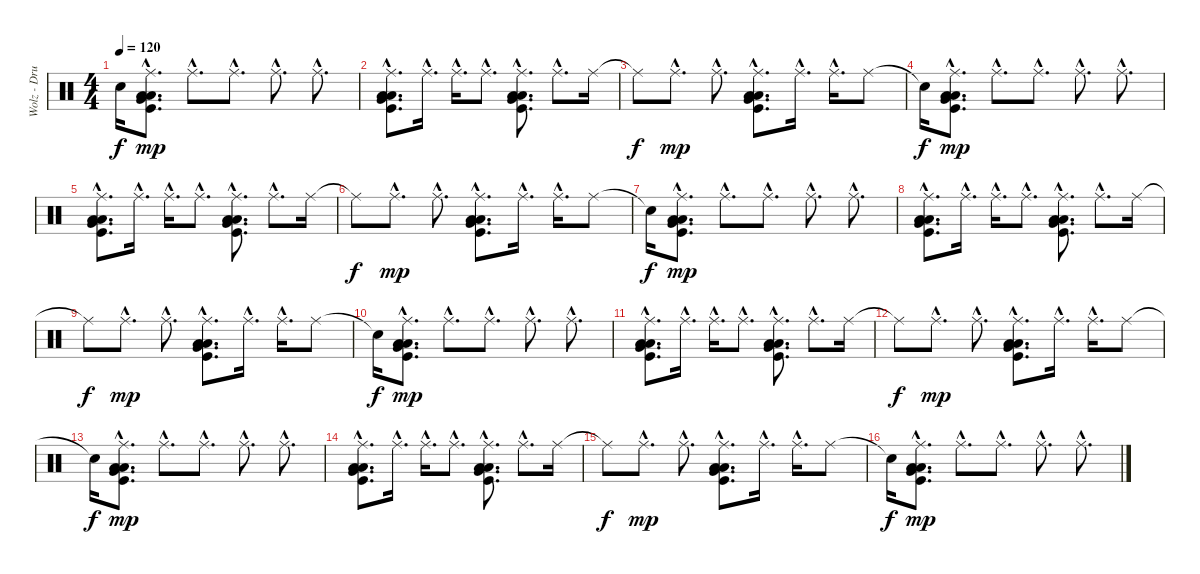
\track ("Wolz - Drums" "Wolz - Dru") {instrument percussion}
\staff {score}
\articulation defaults
\ts (4 4)
\tempo 120
\clef neutral
\ks c "Snare (hit)"{t}.16{dy f}
("Ride (middle)"{hac} "Low Tom (hit)"{hac} "Very Low Tom (hit)"{hac} "Low Floor Tom (hit)"{hac} "Kick (hit)"{hac}).8{d bu 60 dy mp} "Ride (middle)"{hac}.8{d} "Ride (middle)"{hac}.8{d} "Ride (middle)"{hac}.8{d} "Ride (middle)"{hac}.8{d} |
("Ride (middle)"{hac} "Low Tom (hit)"{hac} "Very Low Tom (hit)"{hac} "Low Floor Tom (hit)"{hac} "Kick (hit)"{hac}).8{d bu 60} "Ride (middle)"{hac}.16{d} "Ride (middle)"{hac}.16{d} "Ride (middle)"{hac}.8{d} ("Ride (middle)"{hac} "Low Tom (hit)"{hac} "Very Low Tom (hit)"{hac} "Low Floor Tom (hit)"{hac} "Kick (hit)"{hac}).8{d bu 60} "Ride (middle)"{hac}.8{d} "Ride (middle)".16 |
"Ride (middle)"{t}.8{dy f} "Ride (middle)"{hac}.8{d dy mp} "Ride (middle)"{hac}.8{d bu 60} ("Ride (middle)"{hac} "Low Tom (hit)"{hac} "Very Low Tom (hit)"{hac} "Low Floor Tom (hit)"{hac} "Kick (hit)"{hac}).8{d bu 60} "Ride (middle)"{hac}.16{d} "Ride (middle)"{hac}.16{d} "Ride (middle)".8 |
"Snare (hit)"{t}.16{dy f} ("Ride (middle)"{hac} "Low Tom (hit)"{hac} "Very Low Tom (hit)"{hac} "Low Floor Tom (hit)"{hac} "Kick (hit)"{hac}).8{d bu 60 dy mp} "Ride (middle)"{hac}.8{d} "Ride (middle)"{hac}.8{d} "Ride (middle)"{hac}.8{d} "Ride (middle)"{hac}.8{d} |
("Ride (middle)"{hac} "Low Tom (hit)"{hac} "Very Low Tom (hit)"{hac} "Low Floor Tom (hit)"{hac} "Kick (hit)"{hac}).8{d bu 60} "Ride (middle)"{hac}.16{d} "Ride (middle)"{hac}.16{d} "Ride (middle)"{hac}.8{d} ("Ride (middle)"{hac} "Low Tom (hit)"{hac} "Very Low Tom (hit)"{hac} "Low Floor Tom (hit)"{hac} "Kick (hit)"{hac}).8{d bu 60} "Ride (middle)"{hac}.8{d} "Ride (middle)".16 |
"Ride (middle)"{t}.8{dy f} "Ride (middle)"{hac}.8{d dy mp} "Ride (middle)"{hac}.8{d bu 60} ("Ride (middle)"{hac} "Low Tom (hit)"{hac} "Very Low Tom (hit)"{hac} "Low Floor Tom (hit)"{hac} "Kick (hit)"{hac}).8{d bu 60} "Ride (middle)"{hac}.16{d} "Ride (middle)"{hac}.16{d} "Ride (middle)".8 |
"Snare (hit)"{t}.16{dy f} ("Ride (middle)"{hac} "Low Tom (hit)"{hac} "Very Low Tom (hit)"{hac} "Low Floor Tom (hit)"{hac} "Kick (hit)"{hac}).8{d bu 60 dy mp} "Ride (middle)"{hac}.8{d} "Ride (middle)"{hac}.8{d} "Ride (middle)"{hac}.8{d} "Ride (middle)"{hac}.8{d} |
("Ride (middle)"{hac} "Low Tom (hit)"{hac} "Very Low Tom (hit)"{hac} "Low Floor Tom (hit)"{hac} "Kick (hit)"{hac}).8{d bu 60} "Ride (middle)"{hac}.16{d} "Ride (middle)"{hac}.16{d} "Ride (middle)"{hac}.8{d} ("Ride (middle)"{hac} "Low Tom (hit)"{hac} "Very Low Tom (hit)"{hac} "Low Floor Tom (hit)"{hac} "Kick (hit)"{hac}).8{d bu 60} "Ride (middle)"{hac}.8{d} "Ride (middle)".16 |
"Ride (middle)"{t}.8{dy f} "Ride (middle)"{hac}.8{d dy mp} "Ride (middle)"{hac}.8{d bu 60} ("Ride (middle)"{hac} "Low Tom (hit)"{hac} "Very Low Tom (hit)"{hac} "Low Floor Tom (hit)"{hac} "Kick (hit)"{hac}).8{d bu 60} "Ride (middle)"{hac}.16{d} "Ride (middle)"{hac}.16{d} "Ride (middle)".8 |
"Snare (hit)"{t}.16{dy f} ("Ride (middle)"{hac} "Low Tom (hit)"{hac} "Very Low Tom (hit)"{hac} "Low Floor Tom (hit)"{hac} "Kick (hit)"{hac}).8{d bu 60 dy mp} "Ride (middle)"{hac}.8{d} "Ride (middle)"{hac}.8{d} "Ride (middle)"{hac}.8{d} "Ride (middle)"{hac}.8{d} |
("Ride (middle)"{hac} "Low Tom (hit)"{hac} "Very Low Tom (hit)"{hac} "Low Floor Tom (hit)"{hac} "Kick (hit)"{hac}).8{d bu 60} "Ride (middle)"{hac}.16{d} "Ride (middle)"{hac}.16{d} "Ride (middle)"{hac}.8{d} ("Ride (middle)"{hac} "Low Tom (hit)"{hac} "Very Low Tom (hit)"{hac} "Low Floor Tom (hit)"{hac} "Kick (hit)"{hac}).8{d bu 60} "Ride (middle)"{hac}.8{d} "Ride (middle)".16 |
"Ride (middle)"{t}.8{dy f} "Ride (middle)"{hac}.8{d dy mp} "Ride (middle)"{hac}.8{d bu 60} ("Ride (middle)"{hac} "Low Tom (hit)"{hac} "Very Low Tom (hit)"{hac} "Low Floor Tom (hit)"{hac} "Kick (hit)"{hac}).8{d bu 60} "Ride (middle)"{hac}.16{d} "Ride (middle)"{hac}.16{d} "Ride (middle)".8 |
"Snare (hit)"{t}.16{dy f} ("Ride (middle)"{hac} "Low Tom (hit)"{hac} "Very Low Tom (hit)"{hac} "Low Floor Tom (hit)"{hac} "Kick (hit)"{hac}).8{d bu 60 dy mp} "Ride (middle)"{hac}.8{d} "Ride (middle)"{hac}.8{d} "Ride (middle)"{hac}.8{d} "Ride (middle)"{hac}.8{d} |
("Ride (middle)"{hac} "Low Tom (hit)"{hac} "Very Low Tom (hit)"{hac} "Low Floor Tom (hit)"{hac} "Kick (hit)"{hac}).8{d bu 60} "Ride (middle)"{hac}.16{d} "Ride (middle)"{hac}.16{d} "Ride (middle)"{hac}.8{d} ("Ride (middle)"{hac} "Low Tom (hit)"{hac} "Very Low Tom (hit)"{hac} "Low Floor Tom (hit)"{hac} "Kick (hit)"{hac}).8{d bu 60} "Ride (middle)"{hac}.8{d} "Ride (middle)".16 |
"Ride (middle)"{t}.8{dy f} "Ride (middle)"{hac}.8{d dy mp} "Ride (middle)"{hac}.8{d bu 60} ("Ride (middle)"{hac} "Low Tom (hit)"{hac} "Very Low Tom (hit)"{hac} "Low Floor Tom (hit)"{hac} "Kick (hit)"{hac}).8{d bu 60} "Ride (middle)"{hac}.16{d} "Ride (middle)"{hac}.16{d} "Ride (middle)".8 |
"Snare (hit)"{t}.16{dy f} ("Ride (middle)"{hac} "Low Tom (hit)"{hac} "Very Low Tom (hit)"{hac} "Low Floor Tom (hit)"{hac} "Kick (hit)"{hac}).8{d bu 60 dy mp} "Ride (middle)"{hac}.8{d} "Ride (middle)"{hac}.8{d} "Ride (middle)"{hac}.8{d} "Ride (middle)"{hac}.8{d}
